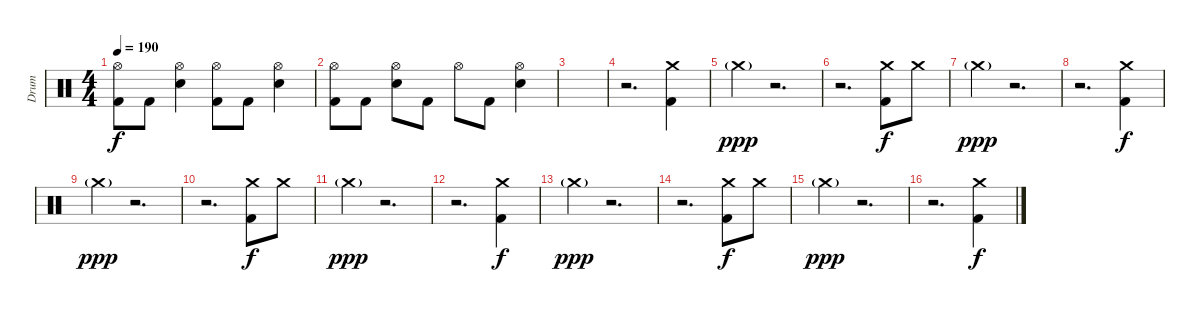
\track ("Drum" "Drum") {instrument percussion}
\staff {score}
\articulation defaults
\ts (4 4)
\tempo 190
\clef neutral
\ks c
("Hi-Hat (open)" "Kick (hit) 2").8{dy f} "Kick (hit) 2".8 ("Hi-Hat (open)" "Snare (hit) 2").4 ("Hi-Hat (open)" "Kick (hit) 2").8 "Kick (hit) 2".8 ("Hi-Hat (open)" "Snare (hit) 2").4 |
("Hi-Hat (open)" "Kick (hit) 2").8 "Kick (hit) 2".8 ("Hi-Hat (open)" "Snare (hit) 2").8 "Kick (hit) 2".8 "Hi-Hat (open)".8 "Kick (hit) 2".8 ("Hi-Hat (open)" "Snare (hit) 2").4 |
|
r.2{d} ("Crash medium (hit)" "Kick (hit) 2").4 |
"Crash medium (hit)"{g}.4{dy ppp} r.2{d} |
r.2{d} ("Crash medium (hit)" "Kick (hit) 2").8{dy f} "Crash medium (hit)".8 |
"Crash medium (hit)"{g}.4{dy ppp} r.2{d} |
r.2{d} ("Crash medium (hit)" "Kick (hit) 2").4{dy f} |
"Crash medium (hit)"{g}.4{dy ppp} r.2{d} |
r.2{d} ("Crash medium (hit)" "Kick (hit) 2").8{dy f} "Crash medium (hit)".8 |
"Crash medium (hit)"{g}.4{dy ppp} r.2{d} |
r.2{d} ("Crash medium (hit)" "Kick (hit) 2").4{dy f} |
"Crash medium (hit)"{g}.4{dy ppp} r.2{d} |
r.2{d} ("Crash medium (hit)" "Kick (hit) 2").8{dy f} "Crash medium (hit)".8 |
"Crash medium (hit)"{g}.4{dy ppp} r.2{d} |
r.2{d} ("Crash medium (hit)" "Kick (hit) 2").4{dy f}
